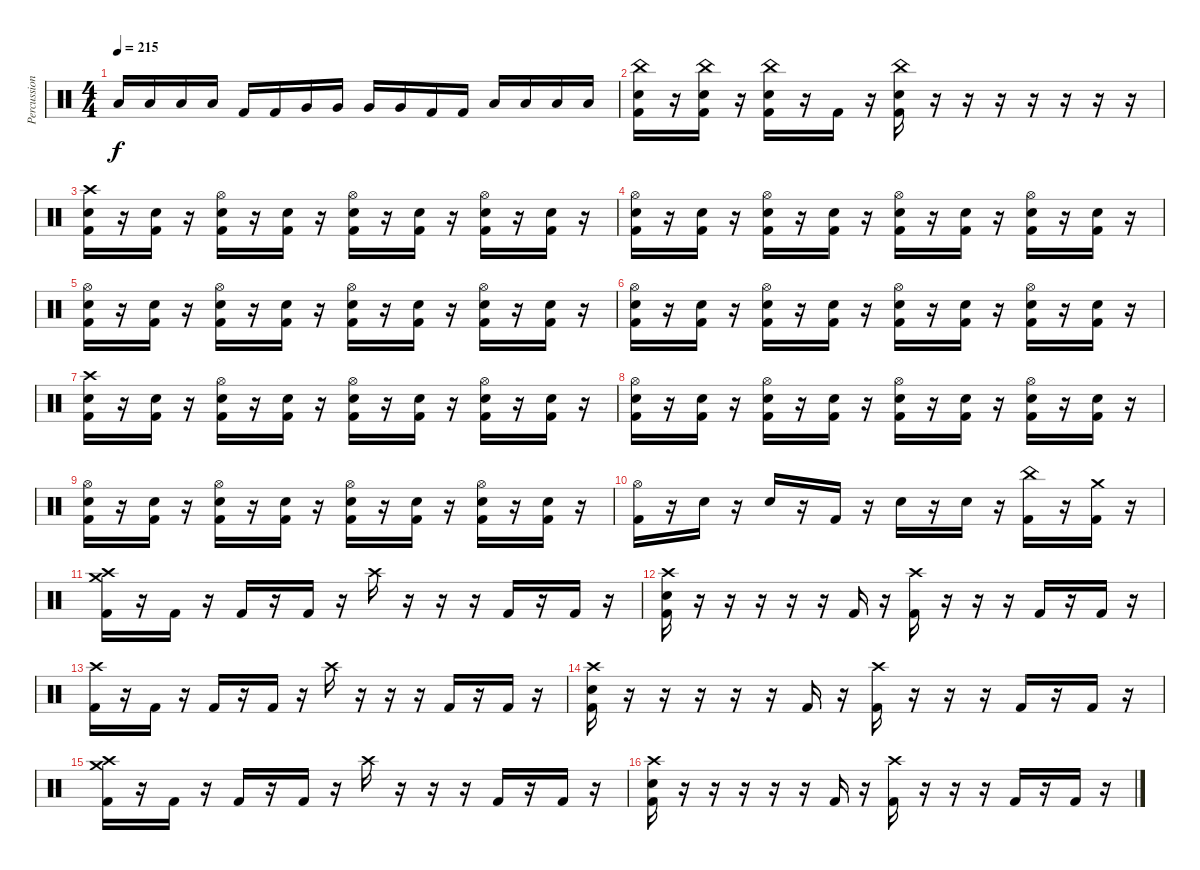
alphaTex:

\track ("Percussion" "Percussion") {instrument percussion}
\staff {score}
\articulation defaults
\ts (4 4)
\tempo 215
\clef neutral
\ks c "Low Tom (hit)".16{dy f} "Low Tom (hit)".16 "Low Tom (hit)".16 "Low Tom (hit)".16 "Kick (hit) 2".16 "Kick (hit) 2".16 "Very Low Tom (hit)".16 "Very Low Tom (hit)".16 "Very Low Tom (hit)".16 "Very Low Tom (hit)".16 "Kick (hit) 2".16 "Kick (hit) 2".16 "Low Floor Tom (hit)".16 "Low Floor Tom (hit)".16 "Low Floor Tom (hit)".16 "Low Floor Tom (hit)".16
|
("Kick (hit) 2" "Electric Snare (hit)" "China (hit)").16 r.16 ("Kick (hit) 2" "Electric Snare (hit)" "China (hit)").16 r.16 ("Kick (hit) 2" "Electric Snare (hit)" "China (hit)").16 r.16 "Kick (hit) 2".16 r.16 ("Kick (hit) 2" "Electric Snare (hit)" "China (hit)").16 r.16 r.16 r.16 r.16 r.16 r.16 r.16 |
("Kick (hit) 2" "Electric Snare (hit)" "Crash high (hit)").16 r.16 ("Kick (hit) 2" "Electric Snare (hit)").16 r.16 ("Kick (hit) 2" "Electric Snare (hit)" "Hi-Hat (open)").16 r.16 ("Kick (hit) 2" "Electric Snare (hit)").16 r.16 ("Kick (hit) 2" "Electric Snare (hit)" "Hi-Hat (open)").16 r.16 ("Kick (hit) 2" "Electric Snare (hit)").16 r.16 ("Kick (hit) 2" "Electric Snare (hit)" "Hi-Hat (open)").16 r.16 ("Kick (hit) 2" "Electric Snare (hit)").16 r.16 |
("Kick (hit) 2" "Electric Snare (hit)" "Hi-Hat (open)").16 r.16 ("Kick (hit) 2" "Electric Snare (hit)").16 r.16 ("Kick (hit) 2" "Electric Snare (hit)" "Hi-Hat (open)").16 r.16 ("Kick (hit) 2" "Electric Snare (hit)").16 r.16 ("Kick (hit) 2" "Electric Snare (hit)" "Hi-Hat (open)").16 r.16 ("Kick (hit) 2" "Electric Snare (hit)").16 r.16 ("Kick (hit) 2" "Electric Snare (hit)" "Hi-Hat (open)").16 r.16 ("Kick (hit) 2" "Electric Snare (hit)").16 r.16 |
("Kick (hit) 2" "Electric Snare (hit)" "Hi-Hat (open)").16 r.16 ("Kick (hit) 2" "Electric Snare (hit)").16 r.16 ("Kick (hit) 2" "Electric Snare (hit)" "Hi-Hat (open)").16 r.16 ("Kick (hit) 2" "Electric Snare (hit)").16 r.16 ("Kick (hit) 2" "Electric Snare (hit)" "Hi-Hat (open)").16 r.16 ("Kick (hit) 2" "Electric Snare (hit)").16 r.16 ("Kick (hit) 2" "Electric Snare (hit)" "Hi-Hat (open)").16 r.16 ("Kick (hit) 2" "Electric Snare (hit)").16 r.16 |
("Kick (hit) 2" "Electric Snare (hit)" "Hi-Hat (open)").16 r.16 ("Kick (hit) 2" "Electric Snare (hit)").16 r.16 ("Kick (hit) 2" "Electric Snare (hit)" "Hi-Hat (open)").16 r.16 ("Kick (hit) 2" "Electric Snare (hit)").16 r.16 ("Kick (hit) 2" "Electric Snare (hit)" "Hi-Hat (open)").16 r.16 ("Kick (hit) 2" "Electric Snare (hit)").16 r.16 ("Kick (hit) 2" "Electric Snare (hit)" "Hi-Hat (open)").16 r.16 ("Kick (hit) 2" "Electric Snare (hit)").16 r.16 |
("Kick (hit) 2" "Electric Snare (hit)" "Crash high (hit)").16 r.16 ("Kick (hit) 2" "Electric Snare (hit)").16 r.16 ("Kick (hit) 2" "Electric Snare (hit)" "Hi-Hat (open)").16 r.16 ("Kick (hit) 2" "Electric Snare (hit)").16 r.16 ("Kick (hit) 2" "Electric Snare (hit)" "Hi-Hat (open)").16 r.16 ("Kick (hit) 2" "Electric Snare (hit)").16 r.16 ("Kick (hit) 2" "Electric Snare (hit)" "Hi-Hat (open)").16 r.16 ("Kick (hit) 2" "Electric Snare (hit)").16 r.16 |
("Kick (hit) 2" "Electric Snare (hit)" "Hi-Hat (open)").16 r.16 ("Kick (hit) 2" "Electric Snare (hit)").16 r.16 ("Kick (hit) 2" "Electric Snare (hit)" "Hi-Hat (open)").16 r.16 ("Kick (hit) 2" "Electric Snare (hit)").16 r.16 ("Kick (hit) 2" "Electric Snare (hit)" "Hi-Hat (open)").16 r.16 ("Kick (hit) 2" "Electric Snare (hit)").16 r.16 ("Kick (hit) 2" "Electric Snare (hit)" "Hi-Hat (open)").16 r.16 ("Kick (hit) 2" "Electric Snare (hit)").16 r.16 |
("Kick (hit) 2" "Electric Snare (hit)" "Hi-Hat (open)").16 r.16 ("Kick (hit) 2" "Electric Snare (hit)").16 r.16 ("Kick (hit) 2" "Electric Snare (hit)" "Hi-Hat (open)").16 r.16 ("Kick (hit) 2" "Electric Snare (hit)").16 r.16 ("Kick (hit) 2" "Electric Snare (hit)" "Hi-Hat (open)").16 r.16 ("Kick (hit) 2" "Electric Snare (hit)").16 r.16 ("Kick (hit) 2" "Electric Snare (hit)" "Hi-Hat (open)").16 r.16 ("Kick (hit) 2" "Electric Snare (hit)").16 r.16 |
("Kick (hit) 2" "Hi-Hat (open)").16 r.16 "Electric Snare (hit)".16 r.16 "Electric Snare (hit)".16 r.16 "Kick (hit) 2".16 r.16 "Electric Snare (hit)".16 r.16 "Electric Snare (hit)".16 r.16 ("Kick (hit) 2" "China (hit)").16 r.16 ("Kick (hit) 2" "Crash medium (hit)").16 r.16 |
("Kick (hit) 2" "Crash medium (hit)" "Crash high (hit)").16 r.16 "Kick (hit) 2".16 r.16 "Kick (hit) 2".16 r.16 "Kick (hit) 2".16 r.16 "Crash high (hit)".16 r.16 r.16 r.16 "Kick (hit) 2".16 r.16 "Kick (hit) 2".16 r.16 |
("Kick (hit) 2" "Electric Snare (hit)" "Crash high (hit)").16 r.16 r.16 r.16 r.16 r.16 "Kick (hit) 2".16 r.16 ("Kick (hit) 2" "Crash high (hit)").16 r.16 r.16 r.16 "Kick (hit) 2".16 r.16 "Kick (hit) 2".16 r.16 |
("Kick (hit) 2" "Crash high (hit)").16 r.16 "Kick (hit) 2".16 r.16 "Kick (hit) 2".16 r.16 "Kick (hit) 2".16 r.16 "Crash high (hit)".16 r.16 r.16 r.16 "Kick (hit) 2".16 r.16 "Kick (hit) 2".16 r.16 |
("Kick (hit) 2" "Electric Snare (hit)" "Crash high (hit)").16 r.16 r.16 r.16 r.16 r.16 "Kick (hit) 2".16 r.16 ("Kick (hit) 2" "Crash high (hit)").16 r.16 r.16 r.16 "Kick (hit) 2".16 r.16 "Kick (hit) 2".16 r.16 |
("Kick (hit) 2" "Crash medium (hit)" "Crash high (hit)").16 r.16 "Kick (hit) 2".16 r.16 "Kick (hit) 2".16 r.16 "Kick (hit) 2".16 r.16 "Crash high (hit)".16 r.16 r.16 r.16 "Kick (hit) 2".16 r.16 "Kick (hit) 2".16 r.16 |
("Kick (hit) 2" "Electric Snare (hit)" "Crash high (hit)").16 r.16 r.16 r.16 r.16 r.16 "Kick (hit) 2".16 r.16 ("Kick (hit) 2" "Crash high (hit)").16 r.16 r.16 r.16 "Kick (hit) 2".16 r.16 "Kick (hit) 2".16 r.16
